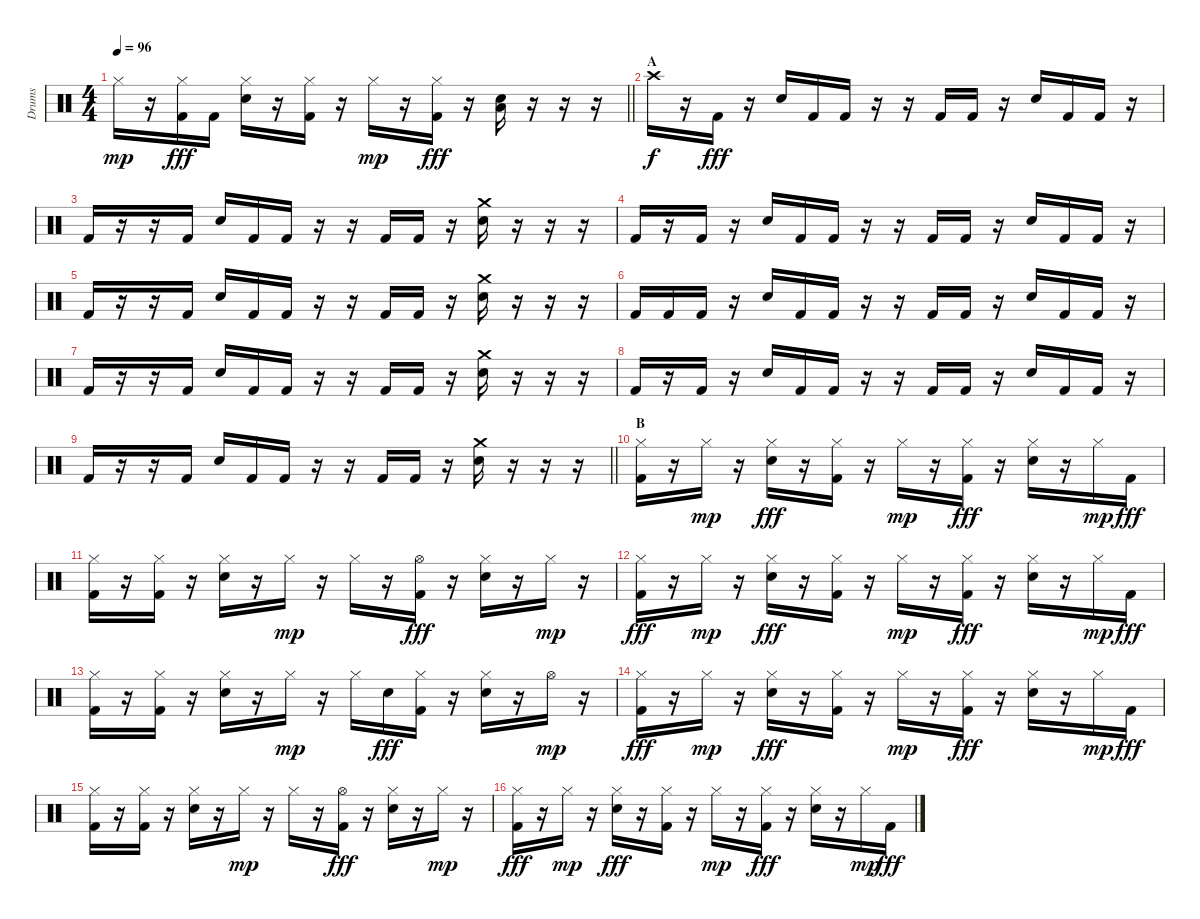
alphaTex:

\track ("Drums" "Drums") {instrument percussion}
\staff
\articulation defaults
\ts (4 4)
\tempo 96
\clef neutral
\barLineRight lightlight
\ks c "Hi-Hat (closed)".16{dy mp}
r.16 ("Hi-Hat (closed)" "Kick (hit) 2").16{dy fff} "Kick (hit) 2".16 ("Hi-Hat (closed)" "Electric Snare (hit)").16 r.16 ("Hi-Hat (closed)" "Kick (hit) 2").16 r.16 "Hi-Hat (closed)".16{dy mp} r.16 ("Hi-Hat (closed)" "Kick (hit) 2").16{dy fff} r.16 ("Low Floor Tom (hit)" "Electric Snare (hit)").16 r.16 r.16 r.16 |
\section ("" "A")
"Crash high (hit)".16{dy f} r.16 "Kick (hit) 2".16{dy fff} r.16 "Electric Snare (hit)".16 "Kick (hit) 2".16 "Kick (hit) 2".16 r.16 r.16 "Kick (hit) 2".16 "Kick (hit) 2".16 r.16 "Electric Snare (hit)".16 "Kick (hit) 2".16 "Kick (hit) 2".16 r.16 |
"Kick (hit) 2".16 r.16 r.16 "Kick (hit) 2".16 "Electric Snare (hit)".16 "Kick (hit) 2".16 "Kick (hit) 2".16 r.16 r.16 "Kick (hit) 2".16 "Kick (hit) 2".16 r.16 ("Crash medium (hit)" "Electric Snare (hit)").16 r.16 r.16 r.16 |
"Kick (hit) 2".16 r.16 "Kick (hit) 2".16 r.16 "Electric Snare (hit)".16 "Kick (hit) 2".16 "Kick (hit) 2".16 r.16 r.16 "Kick (hit) 2".16 "Kick (hit) 2".16 r.16 "Electric Snare (hit)".16 "Kick (hit) 2".16 "Kick (hit) 2".16 r.16 |
"Kick (hit) 2".16 r.16 r.16 "Kick (hit) 2".16 "Electric Snare (hit)".16 "Kick (hit) 2".16 "Kick (hit) 2".16 r.16 r.16 "Kick (hit) 2".16 "Kick (hit) 2".16 r.16 ("Crash medium (hit)" "Electric Snare (hit)").16 r.16 r.16 r.16 |
"Kick (hit) 2".16 "Kick (hit) 2".16 "Kick (hit) 2".16 r.16 "Electric Snare (hit)".16 "Kick (hit) 2".16 "Kick (hit) 2".16 r.16 r.16 "Kick (hit) 2".16 "Kick (hit) 2".16 r.16 "Electric Snare (hit)".16 "Kick (hit) 2".16 "Kick (hit) 2".16 r.16 |
"Kick (hit) 2".16 r.16 r.16 "Kick (hit) 2".16 "Electric Snare (hit)".16 "Kick (hit) 2".16 "Kick (hit) 2".16 r.16 r.16 "Kick (hit) 2".16 "Kick (hit) 2".16 r.16 ("Crash medium (hit)" "Electric Snare (hit)").16 r.16 r.16 r.16 |
"Kick (hit) 2".16 r.16 "Kick (hit) 2".16 r.16 "Electric Snare (hit)".16 "Kick (hit) 2".16 "Kick (hit) 2".16 r.16 r.16 "Kick (hit) 2".16 "Kick (hit) 2".16 r.16 "Electric Snare (hit)".16 "Kick (hit) 2".16 "Kick (hit) 2".16 r.16 |
\barLineRight lightlight "Kick (hit) 2".16
r.16 r.16 "Kick (hit) 2".16 "Electric Snare (hit)".16 "Kick (hit) 2".16 "Kick (hit) 2".16 r.16 r.16 "Kick (hit) 2".16 "Kick (hit) 2".16 r.16 ("Crash medium (hit)" "Electric Snare (hit)").16 r.16 r.16 r.16 |
\section ("" "B")
("Hi-Hat (closed)" "Kick (hit) 2").16 r.16 "Hi-Hat (closed)".16{dy mp} r.16 ("Hi-Hat (closed)" "Electric Snare (hit)").16{dy fff} r.16 ("Hi-Hat (closed)" "Kick (hit) 2").16 r.16 "Hi-Hat (closed)".16{dy mp} r.16 ("Hi-Hat (closed)" "Kick (hit) 2").16{dy fff} r.16 ("Hi-Hat (closed)" "Electric Snare (hit)").16 r.16 "Hi-Hat (closed)".16{dy mp} "Kick (hit) 2".16{dy fff} |
("Hi-Hat (closed)" "Kick (hit) 2").16 r.16 ("Hi-Hat (closed)" "Kick (hit) 2").16 r.16 ("Hi-Hat (closed)" "Electric Snare (hit)").16 r.16 "Hi-Hat (closed)".16{dy mp} r.16 "Hi-Hat (closed)".16 r.16 ("Hi-Hat (open)" "Kick (hit) 2").16{dy fff} r.16 ("Hi-Hat (closed)" "Electric Snare (hit)").16 r.16 "Hi-Hat (closed)".16{dy mp} r.16 |
("Hi-Hat (closed)" "Kick (hit) 2").16{dy fff} r.16 "Hi-Hat (closed)".16{dy mp} r.16 ("Hi-Hat (closed)" "Electric Snare (hit)").16{dy fff} r.16 ("Hi-Hat (closed)" "Kick (hit) 2").16 r.16 "Hi-Hat (closed)".16{dy mp} r.16 ("Hi-Hat (closed)" "Kick (hit) 2").16{dy fff} r.16 ("Hi-Hat (closed)" "Electric Snare (hit)").16 r.16 "Hi-Hat (closed)".16{dy mp} "Kick (hit) 2".16{dy fff} |
("Hi-Hat (closed)" "Kick (hit) 2").16 r.16 ("Hi-Hat (closed)" "Kick (hit) 2").16 r.16 ("Hi-Hat (closed)" "Electric Snare (hit)").16 r.16 "Hi-Hat (closed)".16{dy mp} r.16 "Hi-Hat (closed)".16 "Electric Snare (hit)".16{dy fff} ("Hi-Hat (closed)" "Kick (hit) 2").16 r.16 ("Hi-Hat (closed)" "Electric Snare (hit)").16 r.16 "Hi-Hat (open)".16{dy mp} r.16 |
("Hi-Hat (closed)" "Kick (hit) 2").16{dy fff} r.16 "Hi-Hat (closed)".16{dy mp} r.16 ("Hi-Hat (closed)" "Electric Snare (hit)").16{dy fff} r.16 ("Hi-Hat (closed)" "Kick (hit) 2").16 r.16 "Hi-Hat (closed)".16{dy mp} r.16 ("Hi-Hat (closed)" "Kick (hit) 2").16{dy fff} r.16 ("Hi-Hat (closed)" "Electric Snare (hit)").16 r.16 "Hi-Hat (closed)".16{dy mp} "Kick (hit) 2".16{dy fff} |
("Hi-Hat (closed)" "Kick (hit) 2").16 r.16 ("Hi-Hat (closed)" "Kick (hit) 2").16 r.16 ("Hi-Hat (closed)" "Electric Snare (hit)").16 r.16 "Hi-Hat (closed)".16{dy mp} r.16 "Hi-Hat (closed)".16 r.16 ("Hi-Hat (open)" "Kick (hit) 2").16{dy fff} r.16 ("Hi-Hat (closed)" "Electric Snare (hit)").16 r.16 "Hi-Hat (closed)".16{dy mp} r.16 |
("Hi-Hat (closed)" "Kick (hit) 2").16{dy fff} r.16 "Hi-Hat (closed)".16{dy mp} r.16 ("Hi-Hat (closed)" "Electric Snare (hit)").16{dy fff} r.16 ("Hi-Hat (closed)" "Kick (hit) 2").16 r.16 "Hi-Hat (closed)".16{dy mp} r.16 ("Hi-Hat (closed)" "Kick (hit) 2").16{dy fff} r.16 ("Hi-Hat (closed)" "Electric Snare (hit)").16 r.16 "Hi-Hat (closed)".16{dy mp} "Kick (hit) 2".16{dy fff}
